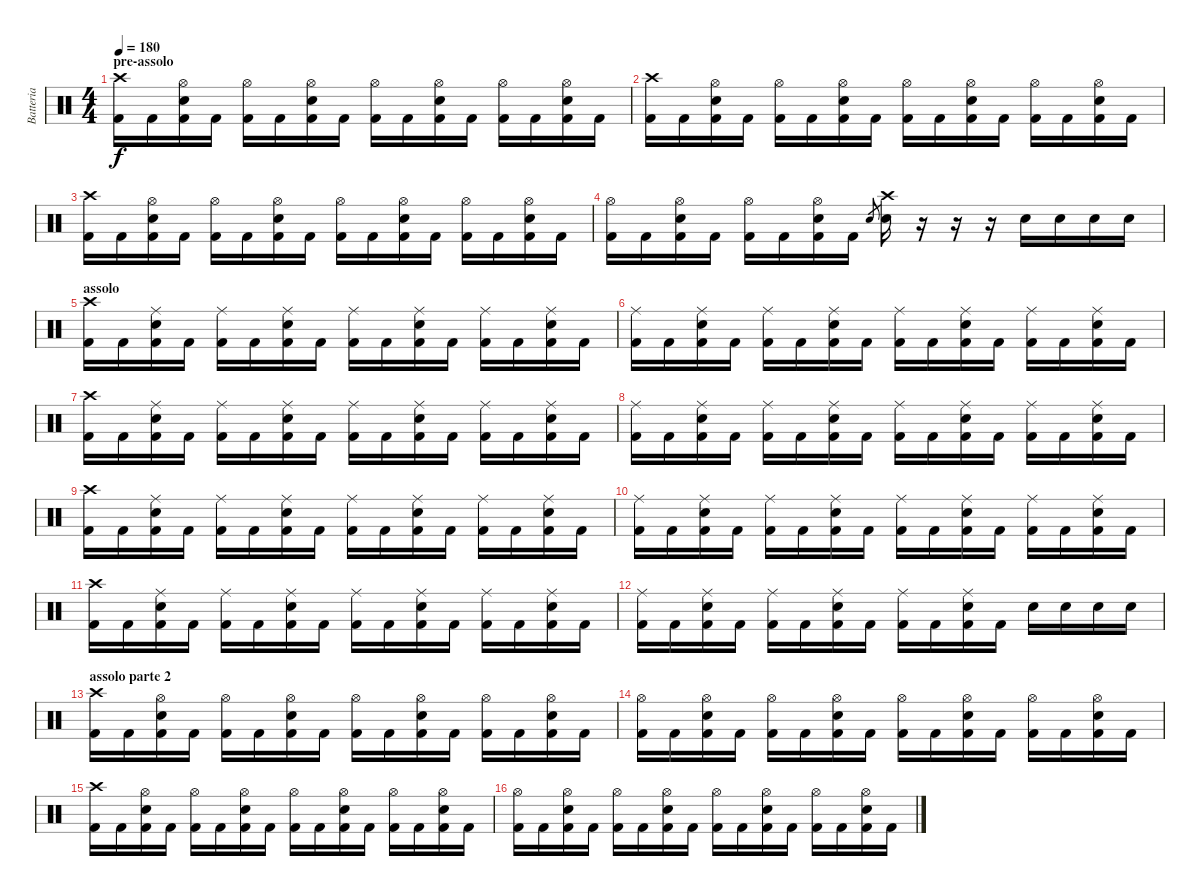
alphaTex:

\track ("Batteria" "Batteria") {instrument percussion}
\staff {score}
\articulation defaults
\ts (4 4)
\section ("" "pre-assolo")
\tempo 180
\clef neutral
\ks c
("Crash high (hit)" "Kick (hit) 2").16{dy f} "Kick (hit) 2".16 ("Hi-Hat (open)" "Snare (hit) 2" "Kick (hit) 2").16 "Kick (hit) 2".16 ("Hi-Hat (open)" "Kick (hit) 2").16 "Kick (hit) 2".16 ("Hi-Hat (open)" "Snare (hit) 2" "Kick (hit) 2").16 "Kick (hit) 2".16 ("Hi-Hat (open)" "Kick (hit) 2").16 "Kick (hit) 2".16 ("Hi-Hat (open)" "Snare (hit) 2" "Kick (hit) 2").16 "Kick (hit) 2".16 ("Hi-Hat (open)" "Kick (hit) 2").16 "Kick (hit) 2".16 ("Hi-Hat (open)" "Snare (hit) 2" "Kick (hit) 2").16 "Kick (hit) 2".16 |
("Crash high (hit)" "Kick (hit) 2").16 "Kick (hit) 2".16 ("Hi-Hat (open)" "Snare (hit) 2" "Kick (hit) 2").16 "Kick (hit) 2".16 ("Hi-Hat (open)" "Kick (hit) 2").16 "Kick (hit) 2".16 ("Hi-Hat (open)" "Snare (hit) 2" "Kick (hit) 2").16 "Kick (hit) 2".16 ("Hi-Hat (open)" "Kick (hit) 2").16 "Kick (hit) 2".16 ("Hi-Hat (open)" "Snare (hit) 2" "Kick (hit) 2").16 "Kick (hit) 2".16 ("Hi-Hat (open)" "Kick (hit) 2").16 "Kick (hit) 2".16 ("Hi-Hat (open)" "Snare (hit) 2" "Kick (hit) 2").16 "Kick (hit) 2".16 |
("Crash high (hit)" "Kick (hit) 2").16 "Kick (hit) 2".16 ("Hi-Hat (open)" "Snare (hit) 2" "Kick (hit) 2").16 "Kick (hit) 2".16 ("Hi-Hat (open)" "Kick (hit) 2").16 "Kick (hit) 2".16 ("Hi-Hat (open)" "Snare (hit) 2" "Kick (hit) 2").16 "Kick (hit) 2".16 ("Hi-Hat (open)" "Kick (hit) 2").16 "Kick (hit) 2".16 ("Hi-Hat (open)" "Snare (hit) 2" "Kick (hit) 2").16 "Kick (hit) 2".16 ("Hi-Hat (open)" "Kick (hit) 2").16 "Kick (hit) 2".16 ("Hi-Hat (open)" "Snare (hit) 2" "Kick (hit) 2").16 "Kick (hit) 2".16 |
("Hi-Hat (open)" "Kick (hit) 2").16 "Kick (hit) 2".16 ("Hi-Hat (open)" "Snare (hit) 2" "Kick (hit) 2").16 "Kick (hit) 2".16 ("Hi-Hat (open)" "Kick (hit) 2").16 "Kick (hit) 2".16 ("Hi-Hat (open)" "Snare (hit) 2" "Kick (hit) 2").16 "Kick (hit) 2".16 "Snare (hit) 2".8{gr} ("Crash high (hit)" "Snare (hit) 2").16 r.16 r.16 r.16 "Snare (hit) 2".16 "Snare (hit) 2".16 "Snare (hit) 2".16 "Snare (hit) 2".16 |
\section ("" "assolo")
("Crash high (hit)" "Kick (hit) 2").16 "Kick (hit) 2".16 ("Ride (middle)" "Snare (hit) 2" "Kick (hit) 2").16 "Kick (hit) 2".16 ("Ride (middle)" "Kick (hit) 2").16 "Kick (hit) 2".16 ("Ride (middle)" "Snare (hit) 2" "Kick (hit) 2").16 "Kick (hit) 2".16 ("Ride (middle)" "Kick (hit) 2").16 "Kick (hit) 2".16 ("Ride (middle)" "Snare (hit) 2" "Kick (hit) 2").16 "Kick (hit) 2".16 ("Ride (middle)" "Kick (hit) 2").16 "Kick (hit) 2".16 ("Ride (middle)" "Snare (hit) 2" "Kick (hit) 2").16 "Kick (hit) 2".16 |
("Ride (middle)" "Kick (hit) 2").16 "Kick (hit) 2".16 ("Ride (middle)" "Snare (hit) 2" "Kick (hit) 2").16 "Kick (hit) 2".16 ("Ride (middle)" "Kick (hit) 2").16 "Kick (hit) 2".16 ("Ride (middle)" "Snare (hit) 2" "Kick (hit) 2").16 "Kick (hit) 2".16 ("Ride (middle)" "Kick (hit) 2").16 "Kick (hit) 2".16 ("Ride (middle)" "Snare (hit) 2" "Kick (hit) 2").16 "Kick (hit) 2".16 ("Ride (middle)" "Kick (hit) 2").16 "Kick (hit) 2".16 ("Ride (middle)" "Snare (hit) 2" "Kick (hit) 2").16 "Kick (hit) 2".16 |
("Crash high (hit)" "Kick (hit) 2").16 "Kick (hit) 2".16 ("Ride (middle)" "Snare (hit) 2" "Kick (hit) 2").16 "Kick (hit) 2".16 ("Ride (middle)" "Kick (hit) 2").16 "Kick (hit) 2".16 ("Ride (middle)" "Snare (hit) 2" "Kick (hit) 2").16 "Kick (hit) 2".16 ("Ride (middle)" "Kick (hit) 2").16 "Kick (hit) 2".16 ("Ride (middle)" "Snare (hit) 2" "Kick (hit) 2").16 "Kick (hit) 2".16 ("Ride (middle)" "Kick (hit) 2").16 "Kick (hit) 2".16 ("Ride (middle)" "Snare (hit) 2" "Kick (hit) 2").16 "Kick (hit) 2".16 |
("Ride (middle)" "Kick (hit) 2").16 "Kick (hit) 2".16 ("Ride (middle)" "Snare (hit) 2" "Kick (hit) 2").16 "Kick (hit) 2".16 ("Ride (middle)" "Kick (hit) 2").16 "Kick (hit) 2".16 ("Ride (middle)" "Snare (hit) 2" "Kick (hit) 2").16 "Kick (hit) 2".16 ("Ride (middle)" "Kick (hit) 2").16 "Kick (hit) 2".16 ("Ride (middle)" "Snare (hit) 2" "Kick (hit) 2").16 "Kick (hit) 2".16 ("Ride (middle)" "Kick (hit) 2").16 "Kick (hit) 2".16 ("Ride (middle)" "Snare (hit) 2" "Kick (hit) 2").16 "Kick (hit) 2".16 |
("Crash high (hit)" "Kick (hit) 2").16 "Kick (hit) 2".16 ("Ride (middle)" "Snare (hit) 2" "Kick (hit) 2").16 "Kick (hit) 2".16 ("Ride (middle)" "Kick (hit) 2").16 "Kick (hit) 2".16 ("Ride (middle)" "Snare (hit) 2" "Kick (hit) 2").16 "Kick (hit) 2".16 ("Ride (middle)" "Kick (hit) 2").16 "Kick (hit) 2".16 ("Ride (middle)" "Snare (hit) 2" "Kick (hit) 2").16 "Kick (hit) 2".16 ("Ride (middle)" "Kick (hit) 2").16 "Kick (hit) 2".16 ("Ride (middle)" "Snare (hit) 2" "Kick (hit) 2").16 "Kick (hit) 2".16 |
("Ride (middle)" "Kick (hit) 2").16 "Kick (hit) 2".16 ("Ride (middle)" "Snare (hit) 2" "Kick (hit) 2").16 "Kick (hit) 2".16 ("Ride (middle)" "Kick (hit) 2").16 "Kick (hit) 2".16 ("Ride (middle)" "Snare (hit) 2" "Kick (hit) 2").16 "Kick (hit) 2".16 ("Ride (middle)" "Kick (hit) 2").16 "Kick (hit) 2".16 ("Ride (middle)" "Snare (hit) 2" "Kick (hit) 2").16 "Kick (hit) 2".16 ("Ride (middle)" "Kick (hit) 2").16 "Kick (hit) 2".16 ("Ride (middle)" "Snare (hit) 2" "Kick (hit) 2").16 "Kick (hit) 2".16 |
("Crash high (hit)" "Kick (hit) 2").16 "Kick (hit) 2".16 ("Ride (middle)" "Snare (hit) 2" "Kick (hit) 2").16 "Kick (hit) 2".16 ("Ride (middle)" "Kick (hit) 2").16 "Kick (hit) 2".16 ("Ride (middle)" "Snare (hit) 2" "Kick (hit) 2").16 "Kick (hit) 2".16 ("Ride (middle)" "Kick (hit) 2").16 "Kick (hit) 2".16 ("Ride (middle)" "Snare (hit) 2" "Kick (hit) 2").16 "Kick (hit) 2".16 ("Ride (middle)" "Kick (hit) 2").16 "Kick (hit) 2".16 ("Ride (middle)" "Snare (hit) 2" "Kick (hit) 2").16 "Kick (hit) 2".16 |
("Ride (middle)" "Kick (hit) 2").16 "Kick (hit) 2".16 ("Ride (middle)" "Snare (hit) 2" "Kick (hit) 2").16 "Kick (hit) 2".16 ("Ride (middle)" "Kick (hit) 2").16 "Kick (hit) 2".16 ("Ride (middle)" "Snare (hit) 2" "Kick (hit) 2").16 "Kick (hit) 2".16 ("Ride (middle)" "Kick (hit) 2").16 "Kick (hit) 2".16 ("Ride (middle)" "Snare (hit) 2" "Kick (hit) 2").16 "Kick (hit) 2".16 "Snare (hit) 2".16 "Snare (hit) 2".16 "Snare (hit) 2".16 "Snare (hit) 2".16 |
\section ("" "assolo parte 2")
("Crash high (hit)" "Kick (hit) 2").16 "Kick (hit) 2".16 ("Hi-Hat (open)" "Snare (hit) 2" "Kick (hit) 2").16 "Kick (hit) 2".16 ("Hi-Hat (open)" "Kick (hit) 2").16 "Kick (hit) 2".16 ("Hi-Hat (open)" "Snare (hit) 2" "Kick (hit) 2").16 "Kick (hit) 2".16 ("Hi-Hat (open)" "Kick (hit) 2").16 "Kick (hit) 2".16 ("Hi-Hat (open)" "Snare (hit) 2" "Kick (hit) 2").16 "Kick (hit) 2".16 ("Hi-Hat (open)" "Kick (hit) 2").16 "Kick (hit) 2".16 ("Hi-Hat (open)" "Snare (hit) 2" "Kick (hit) 2").16 "Kick (hit) 2".16 |
("Hi-Hat (open)" "Kick (hit) 2").16 "Kick (hit) 2".16 ("Hi-Hat (open)" "Snare (hit) 2" "Kick (hit) 2").16 "Kick (hit) 2".16 ("Hi-Hat (open)" "Kick (hit) 2").16 "Kick (hit) 2".16 ("Hi-Hat (open)" "Snare (hit) 2" "Kick (hit) 2").16 "Kick (hit) 2".16 ("Hi-Hat (open)" "Kick (hit) 2").16 "Kick (hit) 2".16 ("Hi-Hat (open)" "Snare (hit) 2" "Kick (hit) 2").16 "Kick (hit) 2".16 ("Hi-Hat (open)" "Kick (hit) 2").16 "Kick (hit) 2".16 ("Hi-Hat (open)" "Snare (hit) 2" "Kick (hit) 2").16 "Kick (hit) 2".16 |
("Crash high (hit)" "Kick (hit) 2").16 "Kick (hit) 2".16 ("Hi-Hat (open)" "Snare (hit) 2" "Kick (hit) 2").16 "Kick (hit) 2".16 ("Hi-Hat (open)" "Kick (hit) 2").16 "Kick (hit) 2".16 ("Hi-Hat (open)" "Snare (hit) 2" "Kick (hit) 2").16 "Kick (hit) 2".16 ("Hi-Hat (open)" "Kick (hit) 2").16 "Kick (hit) 2".16 ("Hi-Hat (open)" "Snare (hit) 2" "Kick (hit) 2").16 "Kick (hit) 2".16 ("Hi-Hat (open)" "Kick (hit) 2").16 "Kick (hit) 2".16 ("Hi-Hat (open)" "Snare (hit) 2" "Kick (hit) 2").16 "Kick (hit) 2".16 |
("Hi-Hat (open)" "Kick (hit) 2").16 "Kick (hit) 2".16 ("Hi-Hat (open)" "Snare (hit) 2" "Kick (hit) 2").16 "Kick (hit) 2".16 ("Hi-Hat (open)" "Kick (hit) 2").16 "Kick (hit) 2".16 ("Hi-Hat (open)" "Snare (hit) 2" "Kick (hit) 2").16 "Kick (hit) 2".16 ("Hi-Hat (open)" "Kick (hit) 2").16 "Kick (hit) 2".16 ("Hi-Hat (open)" "Snare (hit) 2" "Kick (hit) 2").16 "Kick (hit) 2".16 ("Hi-Hat (open)" "Kick (hit) 2").16 "Kick (hit) 2".16 ("Hi-Hat (open)" "Snare (hit) 2" "Kick (hit) 2").16 "Kick (hit) 2".16
